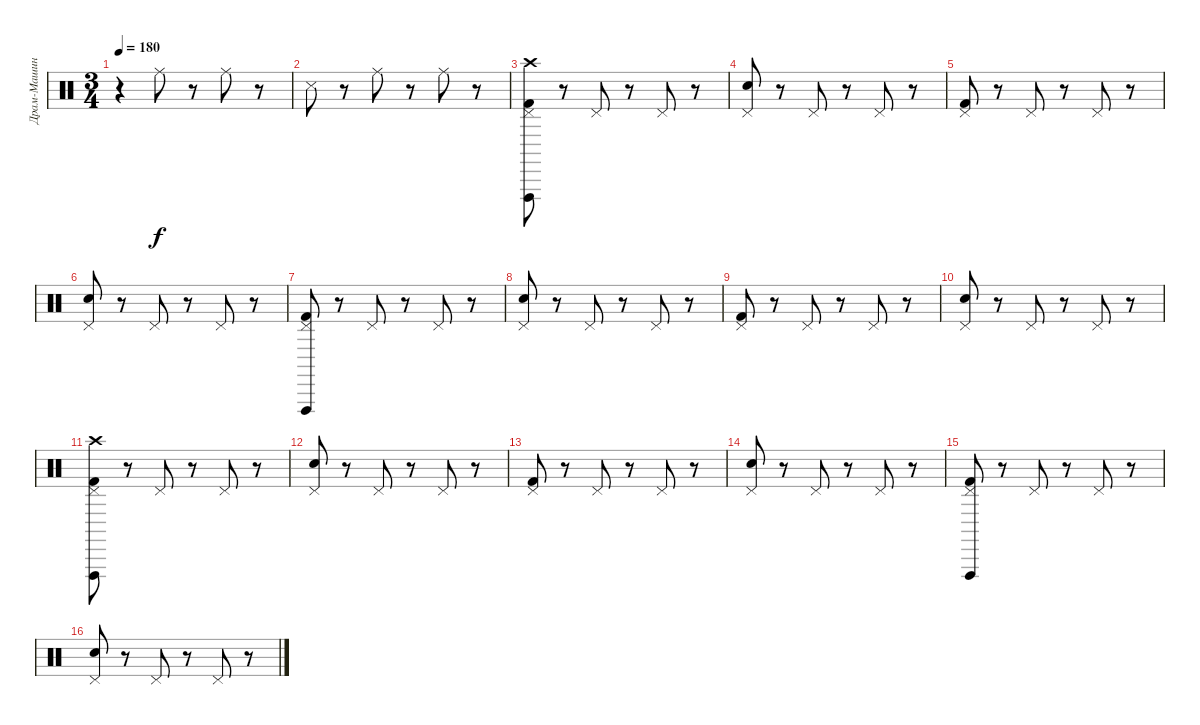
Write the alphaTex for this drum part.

\track ("Драм-Машина" "Драм-Машин") {instrument percussion}
\staff {score}
\articulation defaults
\ts (3 4)
\tempo 180
\clef neutral
\ks c
r.4{dy f} "Ride (middle)".8 r.8 "Ride (middle)".8 r.8 |
"Snare (side stick) 3".8 r.8 "Ride (middle)".8 r.8 "Ride (middle)".8 r.8 |
("Crash high (hit)" "Vibraslap (hit)" "Pedal Hi-Hat (hit)" "Kick (hit) 2").8 r.8 "Pedal Hi-Hat (hit)".8 r.8 "Pedal Hi-Hat (hit)".8 r.8 |
("Pedal Hi-Hat (hit)" "Electric Snare (hit)").8 r.8 "Pedal Hi-Hat (hit)".8 r.8 "Pedal Hi-Hat (hit)".8 r.8 |
("Pedal Hi-Hat (hit)" "Kick (hit) 2").8 r.8 "Pedal Hi-Hat (hit)".8 r.8 "Pedal Hi-Hat (hit)".8 r.8 |
("Pedal Hi-Hat (hit)" "Electric Snare (hit)").8 r.8 "Pedal Hi-Hat (hit)".8 r.8 "Pedal Hi-Hat (hit)".8 r.8 |
("Vibraslap (hit)" "Pedal Hi-Hat (hit)" "Kick (hit) 2").8 r.8 "Pedal Hi-Hat (hit)".8 r.8 "Pedal Hi-Hat (hit)".8 r.8 |
("Pedal Hi-Hat (hit)" "Electric Snare (hit)").8 r.8 "Pedal Hi-Hat (hit)".8 r.8 "Pedal Hi-Hat (hit)".8 r.8 |
("Pedal Hi-Hat (hit)" "Kick (hit) 2").8 r.8 "Pedal Hi-Hat (hit)".8 r.8 "Pedal Hi-Hat (hit)".8 r.8 |
("Pedal Hi-Hat (hit)" "Electric Snare (hit)").8 r.8 "Pedal Hi-Hat (hit)".8 r.8 "Pedal Hi-Hat (hit)".8 r.8 |
("Crash high (hit)" "Vibraslap (hit)" "Pedal Hi-Hat (hit)" "Kick (hit) 2").8 r.8 "Pedal Hi-Hat (hit)".8 r.8 "Pedal Hi-Hat (hit)".8 r.8 |
("Pedal Hi-Hat (hit)" "Electric Snare (hit)").8 r.8 "Pedal Hi-Hat (hit)".8 r.8 "Pedal Hi-Hat (hit)".8 r.8 |
("Pedal Hi-Hat (hit)" "Kick (hit) 2").8 r.8 "Pedal Hi-Hat (hit)".8 r.8 "Pedal Hi-Hat (hit)".8 r.8 |
("Pedal Hi-Hat (hit)" "Electric Snare (hit)").8 r.8 "Pedal Hi-Hat (hit)".8 r.8 "Pedal Hi-Hat (hit)".8 r.8 |
("Vibraslap (hit)" "Pedal Hi-Hat (hit)" "Kick (hit) 2").8 r.8 "Pedal Hi-Hat (hit)".8 r.8 "Pedal Hi-Hat (hit)".8 r.8 |
("Pedal Hi-Hat (hit)" "Electric Snare (hit)").8 r.8 "Pedal Hi-Hat (hit)".8 r.8 "Pedal Hi-Hat (hit)".8 r.8
